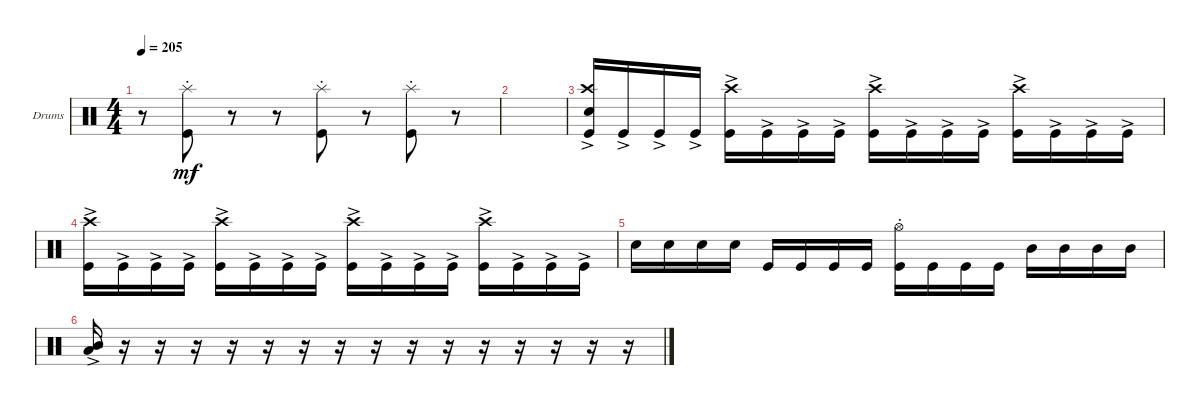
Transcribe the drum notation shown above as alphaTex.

\defaultSystemsLayout 4
\bracketExtendMode groupsimilarinstruments
\firstSystemTrackNameOrientation horizontal
\otherSystemsTrackNameOrientation horizontal
\track ("Drumkit" "Drums") {instrument percussion}
\staff {score}
\articulation defaults
\ts (4 4)
\tempo 205
\clef neutral
\ks c
r.8{dy mf} ("Kick (hit)" "Splash (hit)"{st}).8 r.8 r.8 ("Kick (hit)" "Splash (hit)"{st}).8 r.8 ("Kick (hit)" "Splash (hit)"{st}).8 r.8 |
|
("Kick (hit)"{ac} "Crash high (hit)" "Snare (hit) 2"{ac}).16 "Kick (hit)"{ac}.16 "Kick (hit)"{ac}.16 "Kick (hit)"{ac}.16 ("Kick (hit)"{ac} "Crash high (hit)").16 "Kick (hit)"{ac}.16 "Kick (hit)"{ac}.16 "Kick (hit)"{ac}.16 ("Kick (hit)"{ac} "Crash high (hit)").16 "Kick (hit)"{ac}.16 "Kick (hit)"{ac}.16 "Kick (hit)"{ac}.16 ("Kick (hit)"{ac} "Crash high (hit)").16 "Kick (hit)"{ac}.16 "Kick (hit)"{ac}.16 "Kick (hit)"{ac}.16 |
("Kick (hit)"{ac} "Crash high (hit)").16 "Kick (hit)"{ac}.16 "Kick (hit)"{ac}.16 "Kick (hit)"{ac}.16 ("Kick (hit)"{ac} "Crash high (hit)").16 "Kick (hit)"{ac}.16 "Kick (hit)"{ac}.16 "Kick (hit)"{ac}.16 ("Kick (hit)"{ac} "Crash high (hit)").16 "Kick (hit)"{ac}.16 "Kick (hit)"{ac}.16 "Kick (hit)"{ac}.16 ("Kick (hit)"{ac} "Crash high (hit)").16 "Kick (hit)"{ac}.16 "Kick (hit)"{ac}.16 "Kick (hit)"{ac}.16 |
"Snare (hit) 2".16 "Snare (hit) 2".16 "Snare (hit) 2".16 "Snare (hit) 2".16 "Kick (hit)".16 "Kick (hit)".16 "Kick (hit)".16 "Kick (hit)".16 ("Hi-Hat (open)"{st} "Kick (hit)").16 "Kick (hit)".16 "Kick (hit)".16 "Kick (hit)".16 "Mid Tom (hit)".16 "Mid Tom (hit)".16 "Mid Tom (hit)".16 "Mid Tom (hit)".16 |
("Mid Tom (hit)"{ac} "Low Tom (hit)"{ac}).16 r.16 r.16 r.16 r.16 r.16 r.16 r.16 r.16 r.16 r.16 r.16 r.16 r.16 r.16 r.16
